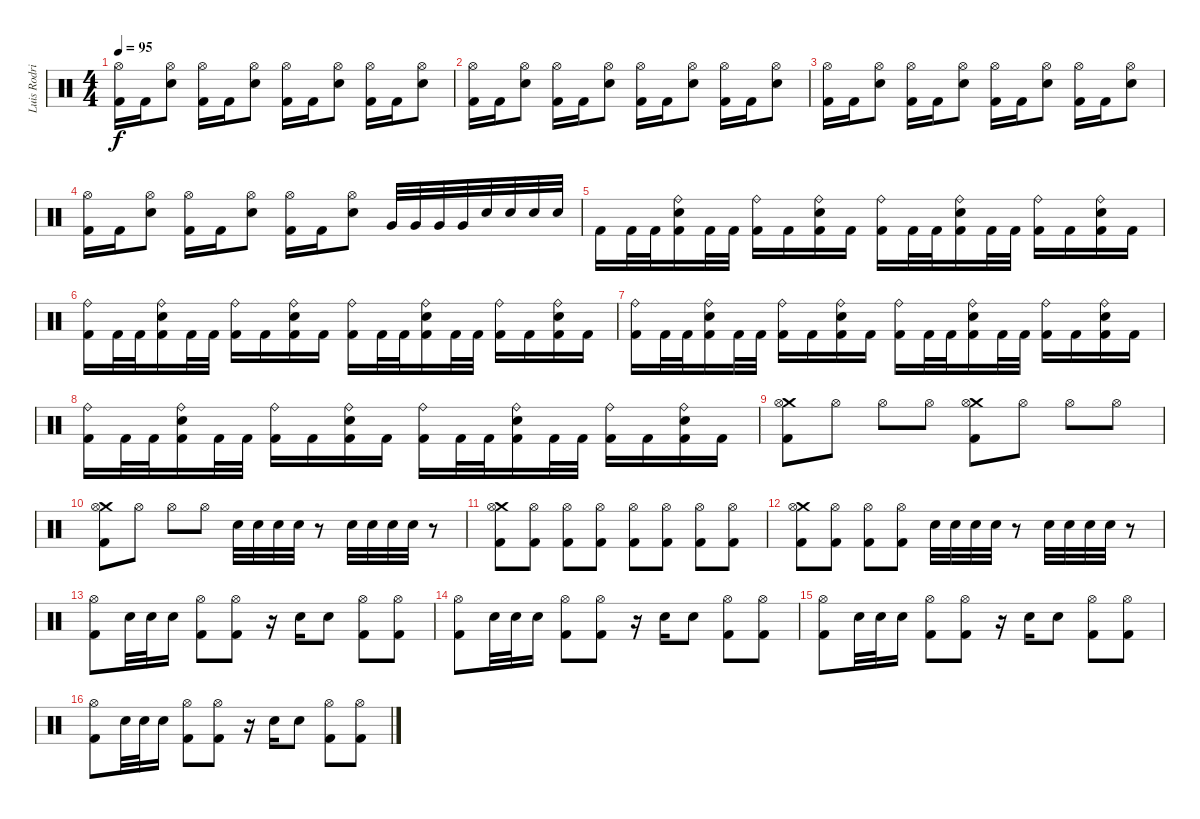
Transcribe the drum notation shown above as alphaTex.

\track ("Luis Rodriguez" "Luis Rodri") {instrument percussion}
\staff {score}
\articulation defaults
\ts (4 4)
\tempo 95
\clef neutral
\ks c
("Hi-Hat (open)" "Kick (hit) 2").16{dy f} "Kick (hit) 2".16 ("Hi-Hat (open)" "Snare (hit) 2").8 ("Hi-Hat (open)" "Kick (hit) 2").16 "Kick (hit) 2".16 ("Hi-Hat (open)" "Snare (hit) 2").8 ("Hi-Hat (open)" "Kick (hit) 2").16 "Kick (hit) 2".16 ("Hi-Hat (open)" "Snare (hit) 2").8 ("Hi-Hat (open)" "Kick (hit) 2").16 "Kick (hit) 2".16 ("Hi-Hat (open)" "Snare (hit) 2").8 |
("Hi-Hat (open)" "Kick (hit) 2").16 "Kick (hit) 2".16 ("Hi-Hat (open)" "Snare (hit) 2").8 ("Hi-Hat (open)" "Kick (hit) 2").16 "Kick (hit) 2".16 ("Hi-Hat (open)" "Snare (hit) 2").8 ("Hi-Hat (open)" "Kick (hit) 2").16 "Kick (hit) 2".16 ("Hi-Hat (open)" "Snare (hit) 2").8 ("Hi-Hat (open)" "Kick (hit) 2").16 "Kick (hit) 2".16 ("Hi-Hat (open)" "Snare (hit) 2").8 |
("Hi-Hat (open)" "Kick (hit) 2").16 "Kick (hit) 2".16 ("Hi-Hat (open)" "Snare (hit) 2").8 ("Hi-Hat (open)" "Kick (hit) 2").16 "Kick (hit) 2".16 ("Hi-Hat (open)" "Snare (hit) 2").8 ("Hi-Hat (open)" "Kick (hit) 2").16 "Kick (hit) 2".16 ("Hi-Hat (open)" "Snare (hit) 2").8 ("Hi-Hat (open)" "Kick (hit) 2").16 "Kick (hit) 2".16 ("Hi-Hat (open)" "Snare (hit) 2").8 |
("Hi-Hat (open)" "Kick (hit) 2").16 "Kick (hit) 2".16 ("Hi-Hat (open)" "Snare (hit) 2").8 ("Hi-Hat (open)" "Kick (hit) 2").16 "Kick (hit) 2".16 ("Hi-Hat (open)" "Snare (hit) 2").8 ("Hi-Hat (open)" "Kick (hit) 2").16 "Kick (hit) 2".16 ("Hi-Hat (open)" "Snare (hit) 2").8 "Very Low Tom (hit)".32 "Very Low Tom (hit)".32 "Very Low Tom (hit)".32 "Very Low Tom (hit)".32 "Electric Snare (hit)".32 "Electric Snare (hit)".32 "Electric Snare (hit)".32 "Electric Snare (hit)".32 |
"Kick (hit) 2".16 "Kick (hit) 2".32 "Kick (hit) 2".32 ("Ride (bell)" "Snare (hit) 2" "Kick (hit) 2").16 "Kick (hit) 2".32 "Kick (hit) 2".32 ("Ride (bell)" "Kick (hit) 2").16 "Kick (hit) 2".16 ("Ride (bell)" "Snare (hit) 2" "Kick (hit) 2").16 "Kick (hit) 2".16 ("Ride (bell)" "Kick (hit) 2").16 "Kick (hit) 2".32 "Kick (hit) 2".32 ("Ride (bell)" "Snare (hit) 2" "Kick (hit) 2").16 "Kick (hit) 2".32 "Kick (hit) 2".32 ("Ride (bell)" "Kick (hit) 2").16 "Kick (hit) 2".16 ("Ride (bell)" "Snare (hit) 2" "Kick (hit) 2").16 "Kick (hit) 2".16 |
("Ride (bell)" "Kick (hit) 2").16 "Kick (hit) 2".32 "Kick (hit) 2".32 ("Ride (bell)" "Snare (hit) 2" "Kick (hit) 2").16 "Kick (hit) 2".32 "Kick (hit) 2".32 ("Ride (bell)" "Kick (hit) 2").16 "Kick (hit) 2".16 ("Ride (bell)" "Snare (hit) 2" "Kick (hit) 2").16 "Kick (hit) 2".16 ("Ride (bell)" "Kick (hit) 2").16 "Kick (hit) 2".32 "Kick (hit) 2".32 ("Ride (bell)" "Snare (hit) 2" "Kick (hit) 2").16 "Kick (hit) 2".32 "Kick (hit) 2".32 ("Ride (bell)" "Kick (hit) 2").16 "Kick (hit) 2".16 ("Ride (bell)" "Snare (hit) 2" "Kick (hit) 2").16 "Kick (hit) 2".16 |
("Ride (bell)" "Kick (hit) 2").16 "Kick (hit) 2".32 "Kick (hit) 2".32 ("Ride (bell)" "Snare (hit) 2" "Kick (hit) 2").16 "Kick (hit) 2".32 "Kick (hit) 2".32 ("Ride (bell)" "Kick (hit) 2").16 "Kick (hit) 2".16 ("Ride (bell)" "Snare (hit) 2" "Kick (hit) 2").16 "Kick (hit) 2".16 ("Ride (bell)" "Kick (hit) 2").16 "Kick (hit) 2".32 "Kick (hit) 2".32 ("Ride (bell)" "Snare (hit) 2" "Kick (hit) 2").16 "Kick (hit) 2".32 "Kick (hit) 2".32 ("Ride (bell)" "Kick (hit) 2").16 "Kick (hit) 2".16 ("Ride (bell)" "Snare (hit) 2" "Kick (hit) 2").16 "Kick (hit) 2".16 |
("Ride (bell)" "Kick (hit) 2").16 "Kick (hit) 2".32 "Kick (hit) 2".32 ("Ride (bell)" "Snare (hit) 2" "Kick (hit) 2").16 "Kick (hit) 2".32 "Kick (hit) 2".32 ("Ride (bell)" "Kick (hit) 2").16 "Kick (hit) 2".16 ("Ride (bell)" "Snare (hit) 2" "Kick (hit) 2").16 "Kick (hit) 2".16 ("Ride (bell)" "Kick (hit) 2").16 "Kick (hit) 2".32 "Kick (hit) 2".32 ("Ride (bell)" "Snare (hit) 2" "Kick (hit) 2").16 "Kick (hit) 2".32 "Kick (hit) 2".32 ("Ride (bell)" "Kick (hit) 2").16 "Kick (hit) 2".16 ("Ride (bell)" "Snare (hit) 2" "Kick (hit) 2").16 "Kick (hit) 2".16 |
("Crash medium (hit)" "Hi-Hat (open)" "Kick (hit) 2").8 "Hi-Hat (open)".8 "Hi-Hat (open)".8 "Hi-Hat (open)".8 ("Crash medium (hit)" "Hi-Hat (open)" "Kick (hit) 2").8 "Hi-Hat (open)".8 "Hi-Hat (open)".8 "Hi-Hat (open)".8 |
("Crash medium (hit)" "Hi-Hat (open)" "Kick (hit) 2").8 "Hi-Hat (open)".8 "Hi-Hat (open)".8 "Hi-Hat (open)".8 "Snare (hit) 2".32 "Snare (hit) 2".32 "Snare (hit) 2".32 "Snare (hit) 2".32 r.8 "Snare (hit) 2".32 "Snare (hit) 2".32 "Snare (hit) 2".32 "Snare (hit) 2".32 r.8 |
("Crash medium (hit)" "Hi-Hat (open)" "Kick (hit) 2").8 ("Hi-Hat (open)" "Kick (hit) 2").8 ("Hi-Hat (open)" "Kick (hit) 2").8 ("Hi-Hat (open)" "Kick (hit) 2").8 ("Hi-Hat (open)" "Kick (hit) 2").8 ("Hi-Hat (open)" "Kick (hit) 2").8 ("Hi-Hat (open)" "Kick (hit) 2").8 ("Hi-Hat (open)" "Kick (hit) 2").8 |
("Crash medium (hit)" "Hi-Hat (open)" "Kick (hit) 2").8 ("Hi-Hat (open)" "Kick (hit) 2").8 ("Hi-Hat (open)" "Kick (hit) 2").8 ("Hi-Hat (open)" "Kick (hit) 2").8 "Snare (hit) 2".32 "Snare (hit) 2".32 "Snare (hit) 2".32 "Snare (hit) 2".32 r.8 "Snare (hit) 2".32 "Snare (hit) 2".32 "Snare (hit) 2".32 "Snare (hit) 2".32 r.8 |
("Hi-Hat (open)" "Kick (hit) 2").8 "Snare (hit) 2".32 "Snare (hit) 2".32 "Snare (hit) 2".16 ("Hi-Hat (open)" "Kick (hit) 2").8 ("Hi-Hat (open)" "Kick (hit) 2").8 r.16 "Snare (hit) 2".16 "Snare (hit) 2".8 ("Hi-Hat (open)" "Kick (hit) 2").8 ("Hi-Hat (open)" "Kick (hit) 2").8 |
("Hi-Hat (open)" "Kick (hit) 2").8 "Snare (hit) 2".32 "Snare (hit) 2".32 "Snare (hit) 2".16 ("Hi-Hat (open)" "Kick (hit) 2").8 ("Hi-Hat (open)" "Kick (hit) 2").8 r.16 "Snare (hit) 2".16 "Snare (hit) 2".8 ("Hi-Hat (open)" "Kick (hit) 2").8 ("Hi-Hat (open)" "Kick (hit) 2").8 |
("Hi-Hat (open)" "Kick (hit) 2").8 "Snare (hit) 2".32 "Snare (hit) 2".32 "Snare (hit) 2".16 ("Hi-Hat (open)" "Kick (hit) 2").8 ("Hi-Hat (open)" "Kick (hit) 2").8 r.16 "Snare (hit) 2".16 "Snare (hit) 2".8 ("Hi-Hat (open)" "Kick (hit) 2").8 ("Hi-Hat (open)" "Kick (hit) 2").8 |
("Hi-Hat (open)" "Kick (hit) 2").8 "Snare (hit) 2".32 "Snare (hit) 2".32 "Snare (hit) 2".16 ("Hi-Hat (open)" "Kick (hit) 2").8 ("Hi-Hat (open)" "Kick (hit) 2").8 r.16 "Snare (hit) 2".16 "Snare (hit) 2".8 ("Hi-Hat (open)" "Kick (hit) 2").8 ("Hi-Hat (open)" "Kick (hit) 2").8
